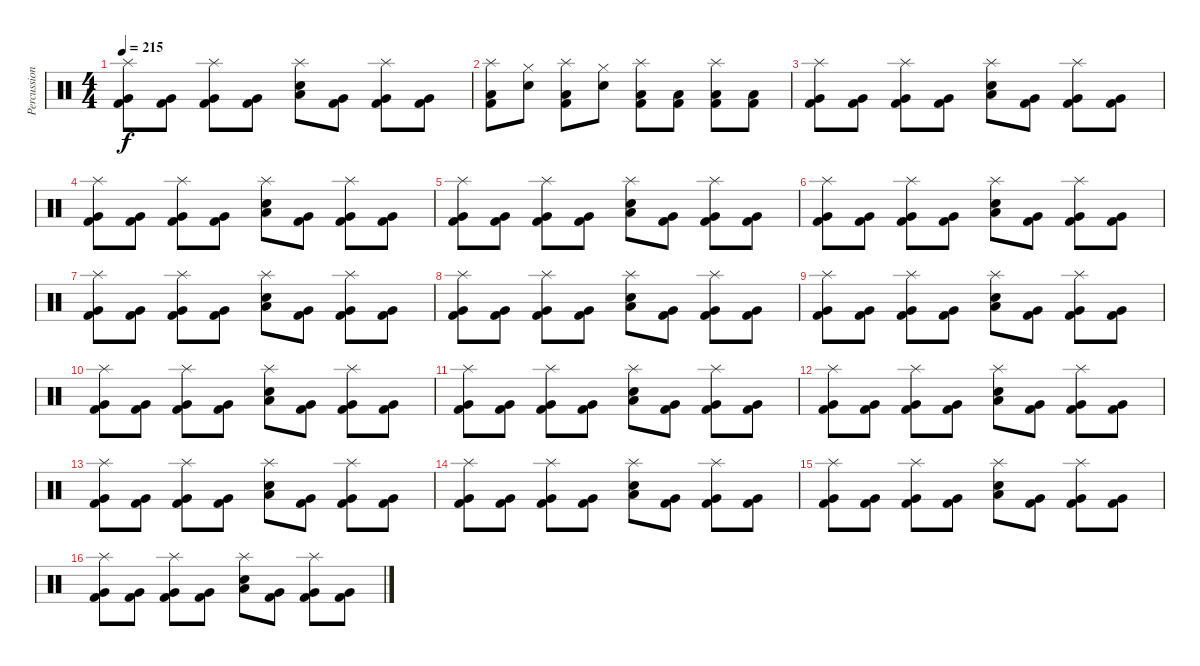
\track ("Percussion" "Percussion") {instrument percussion}
\staff {score}
\articulation defaults
\ts (4 4)
\tempo 215
\clef neutral
\ks c
("Splash (hit)" "Kick (hit) 2" "Very Low Tom (hit)").8{dy f} ("Kick (hit) 2" "Very Low Tom (hit)").8 ("Splash (hit)" "Kick (hit) 2" "Very Low Tom (hit)").8 ("Kick (hit) 2" "Very Low Tom (hit)").8 ("Splash (hit)" "Low Floor Tom (hit)" "Electric Snare (hit)").8 ("Kick (hit) 2" "Very Low Tom (hit)").8 ("Splash (hit)" "Kick (hit) 2" "Very Low Tom (hit)").8 ("Kick (hit) 2" "Very Low Tom (hit)").8 |
("Splash (hit)" "Low Floor Tom (hit)" "Kick (hit) 2").8 ("Hi-Hat (closed)" "Electric Snare (hit)").8 ("Splash (hit)" "Low Floor Tom (hit)" "Kick (hit) 2").8 ("Hi-Hat (closed)" "Electric Snare (hit)").8 ("Splash (hit)" "Low Floor Tom (hit)" "Kick (hit) 2").8 ("Low Floor Tom (hit)" "Kick (hit) 2").8 ("Splash (hit)" "Low Floor Tom (hit)" "Kick (hit) 2").8 ("Low Floor Tom (hit)" "Kick (hit) 2").8 |
("Splash (hit)" "Kick (hit) 2" "Very Low Tom (hit)").8 ("Kick (hit) 2" "Very Low Tom (hit)").8 ("Splash (hit)" "Kick (hit) 2" "Very Low Tom (hit)").8 ("Kick (hit) 2" "Very Low Tom (hit)").8 ("Splash (hit)" "Low Floor Tom (hit)" "Electric Snare (hit)").8 ("Kick (hit) 2" "Very Low Tom (hit)").8 ("Splash (hit)" "Kick (hit) 2" "Very Low Tom (hit)").8 ("Kick (hit) 2" "Very Low Tom (hit)").8 |
("Splash (hit)" "Kick (hit) 2" "Very Low Tom (hit)").8 ("Kick (hit) 2" "Very Low Tom (hit)").8 ("Splash (hit)" "Kick (hit) 2" "Very Low Tom (hit)").8 ("Kick (hit) 2" "Very Low Tom (hit)").8 ("Splash (hit)" "Low Floor Tom (hit)" "Electric Snare (hit)").8 ("Kick (hit) 2" "Very Low Tom (hit)").8 ("Splash (hit)" "Kick (hit) 2" "Very Low Tom (hit)").8 ("Kick (hit) 2" "Very Low Tom (hit)").8 |
("Splash (hit)" "Kick (hit) 2" "Very Low Tom (hit)").8 ("Kick (hit) 2" "Very Low Tom (hit)").8 ("Splash (hit)" "Kick (hit) 2" "Very Low Tom (hit)").8 ("Kick (hit) 2" "Very Low Tom (hit)").8 ("Splash (hit)" "Low Floor Tom (hit)" "Electric Snare (hit)").8 ("Kick (hit) 2" "Very Low Tom (hit)").8 ("Splash (hit)" "Kick (hit) 2" "Very Low Tom (hit)").8 ("Kick (hit) 2" "Very Low Tom (hit)").8 |
("Splash (hit)" "Kick (hit) 2" "Very Low Tom (hit)").8 ("Kick (hit) 2" "Very Low Tom (hit)").8 ("Splash (hit)" "Kick (hit) 2" "Very Low Tom (hit)").8 ("Kick (hit) 2" "Very Low Tom (hit)").8 ("Splash (hit)" "Low Floor Tom (hit)" "Electric Snare (hit)").8 ("Kick (hit) 2" "Very Low Tom (hit)").8 ("Splash (hit)" "Kick (hit) 2" "Very Low Tom (hit)").8 ("Kick (hit) 2" "Very Low Tom (hit)").8 |
("Splash (hit)" "Kick (hit) 2" "Very Low Tom (hit)").8 ("Kick (hit) 2" "Very Low Tom (hit)").8 ("Splash (hit)" "Kick (hit) 2" "Very Low Tom (hit)").8 ("Kick (hit) 2" "Very Low Tom (hit)").8 ("Splash (hit)" "Low Floor Tom (hit)" "Electric Snare (hit)").8 ("Kick (hit) 2" "Very Low Tom (hit)").8 ("Splash (hit)" "Kick (hit) 2" "Very Low Tom (hit)").8 ("Kick (hit) 2" "Very Low Tom (hit)").8 |
("Splash (hit)" "Kick (hit) 2" "Very Low Tom (hit)").8 ("Kick (hit) 2" "Very Low Tom (hit)").8 ("Splash (hit)" "Kick (hit) 2" "Very Low Tom (hit)").8 ("Kick (hit) 2" "Very Low Tom (hit)").8 ("Splash (hit)" "Low Floor Tom (hit)" "Electric Snare (hit)").8 ("Kick (hit) 2" "Very Low Tom (hit)").8 ("Splash (hit)" "Kick (hit) 2" "Very Low Tom (hit)").8 ("Kick (hit) 2" "Very Low Tom (hit)").8 |
("Splash (hit)" "Kick (hit) 2" "Very Low Tom (hit)").8 ("Kick (hit) 2" "Very Low Tom (hit)").8 ("Splash (hit)" "Kick (hit) 2" "Very Low Tom (hit)").8 ("Kick (hit) 2" "Very Low Tom (hit)").8 ("Splash (hit)" "Low Floor Tom (hit)" "Electric Snare (hit)").8 ("Kick (hit) 2" "Very Low Tom (hit)").8 ("Splash (hit)" "Kick (hit) 2" "Very Low Tom (hit)").8 ("Kick (hit) 2" "Very Low Tom (hit)").8 |
("Splash (hit)" "Kick (hit) 2" "Very Low Tom (hit)").8 ("Kick (hit) 2" "Very Low Tom (hit)").8 ("Splash (hit)" "Kick (hit) 2" "Very Low Tom (hit)").8 ("Kick (hit) 2" "Very Low Tom (hit)").8 ("Splash (hit)" "Low Floor Tom (hit)" "Electric Snare (hit)").8 ("Kick (hit) 2" "Very Low Tom (hit)").8 ("Splash (hit)" "Kick (hit) 2" "Very Low Tom (hit)").8 ("Kick (hit) 2" "Very Low Tom (hit)").8 |
("Splash (hit)" "Kick (hit) 2" "Very Low Tom (hit)").8 ("Kick (hit) 2" "Very Low Tom (hit)").8 ("Splash (hit)" "Kick (hit) 2" "Very Low Tom (hit)").8 ("Kick (hit) 2" "Very Low Tom (hit)").8 ("Splash (hit)" "Low Floor Tom (hit)" "Electric Snare (hit)").8 ("Kick (hit) 2" "Very Low Tom (hit)").8 ("Splash (hit)" "Kick (hit) 2" "Very Low Tom (hit)").8 ("Kick (hit) 2" "Very Low Tom (hit)").8 |
("Splash (hit)" "Kick (hit) 2" "Very Low Tom (hit)").8 ("Kick (hit) 2" "Very Low Tom (hit)").8 ("Splash (hit)" "Kick (hit) 2" "Very Low Tom (hit)").8 ("Kick (hit) 2" "Very Low Tom (hit)").8 ("Splash (hit)" "Low Floor Tom (hit)" "Electric Snare (hit)").8 ("Kick (hit) 2" "Very Low Tom (hit)").8 ("Splash (hit)" "Kick (hit) 2" "Very Low Tom (hit)").8 ("Kick (hit) 2" "Very Low Tom (hit)").8 |
("Splash (hit)" "Kick (hit) 2" "Very Low Tom (hit)").8 ("Kick (hit) 2" "Very Low Tom (hit)").8 ("Splash (hit)" "Kick (hit) 2" "Very Low Tom (hit)").8 ("Kick (hit) 2" "Very Low Tom (hit)").8 ("Splash (hit)" "Low Floor Tom (hit)" "Electric Snare (hit)").8 ("Kick (hit) 2" "Very Low Tom (hit)").8 ("Splash (hit)" "Kick (hit) 2" "Very Low Tom (hit)").8 ("Kick (hit) 2" "Very Low Tom (hit)").8 |
("Splash (hit)" "Kick (hit) 2" "Very Low Tom (hit)").8 ("Kick (hit) 2" "Very Low Tom (hit)").8 ("Splash (hit)" "Kick (hit) 2" "Very Low Tom (hit)").8 ("Kick (hit) 2" "Very Low Tom (hit)").8 ("Splash (hit)" "Low Floor Tom (hit)" "Electric Snare (hit)").8 ("Kick (hit) 2" "Very Low Tom (hit)").8 ("Splash (hit)" "Kick (hit) 2" "Very Low Tom (hit)").8 ("Kick (hit) 2" "Very Low Tom (hit)").8 |
("Splash (hit)" "Kick (hit) 2" "Very Low Tom (hit)").8 ("Kick (hit) 2" "Very Low Tom (hit)").8 ("Splash (hit)" "Kick (hit) 2" "Very Low Tom (hit)").8 ("Kick (hit) 2" "Very Low Tom (hit)").8 ("Splash (hit)" "Low Floor Tom (hit)" "Electric Snare (hit)").8 ("Kick (hit) 2" "Very Low Tom (hit)").8 ("Splash (hit)" "Kick (hit) 2" "Very Low Tom (hit)").8 ("Kick (hit) 2" "Very Low Tom (hit)").8 |
("Splash (hit)" "Kick (hit) 2" "Very Low Tom (hit)").8 ("Kick (hit) 2" "Very Low Tom (hit)").8 ("Splash (hit)" "Kick (hit) 2" "Very Low Tom (hit)").8 ("Kick (hit) 2" "Very Low Tom (hit)").8 ("Splash (hit)" "Low Floor Tom (hit)" "Electric Snare (hit)").8 ("Kick (hit) 2" "Very Low Tom (hit)").8 ("Splash (hit)" "Kick (hit) 2" "Very Low Tom (hit)").8 ("Kick (hit) 2" "Very Low Tom (hit)").8
